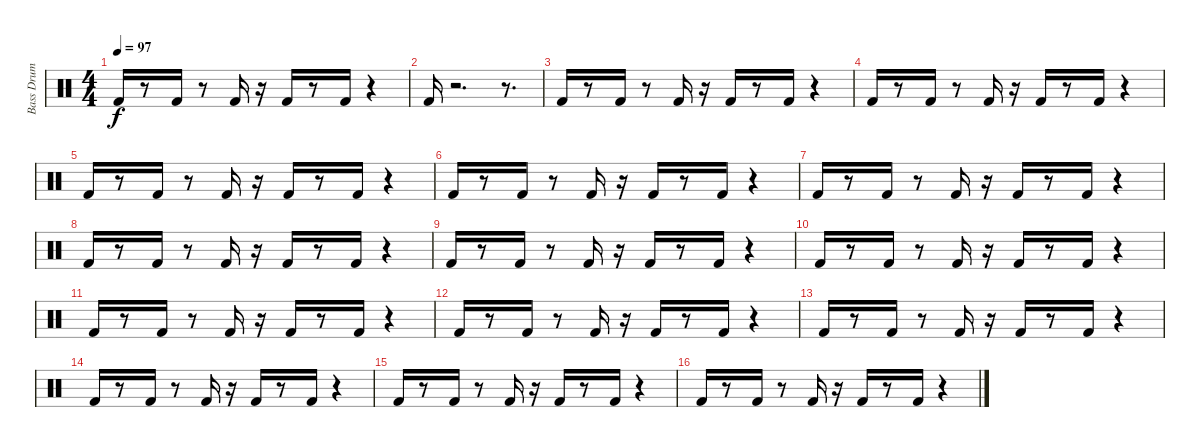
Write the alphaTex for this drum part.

\track ("Bass Drum" "Bass Drum") {instrument percussion}
\staff {score}
\articulation defaults
\ts (4 4)
\tempo 97
\clef neutral
\ks c "Kick (hit) 2".16{dy f}
r.8 "Kick (hit) 2".16 r.8 "Kick (hit) 2".16 r.16 "Kick (hit) 2".16 r.8 "Kick (hit) 2".16 r.4 |
"Kick (hit) 2".16 r.2{d} r.8{d} |
"Kick (hit) 2".16 r.8 "Kick (hit) 2".16 r.8 "Kick (hit) 2".16 r.16 "Kick (hit) 2".16 r.8 "Kick (hit) 2".16 r.4 |
"Kick (hit) 2".16 r.8 "Kick (hit) 2".16 r.8 "Kick (hit) 2".16 r.16 "Kick (hit) 2".16 r.8 "Kick (hit) 2".16 r.4 |
"Kick (hit) 2".16 r.8 "Kick (hit) 2".16 r.8 "Kick (hit) 2".16 r.16 "Kick (hit) 2".16 r.8 "Kick (hit) 2".16 r.4 |
"Kick (hit) 2".16 r.8 "Kick (hit) 2".16 r.8 "Kick (hit) 2".16 r.16 "Kick (hit) 2".16 r.8 "Kick (hit) 2".16 r.4 |
"Kick (hit) 2".16 r.8 "Kick (hit) 2".16 r.8 "Kick (hit) 2".16 r.16 "Kick (hit) 2".16 r.8 "Kick (hit) 2".16 r.4 |
"Kick (hit) 2".16 r.8 "Kick (hit) 2".16 r.8 "Kick (hit) 2".16 r.16 "Kick (hit) 2".16 r.8 "Kick (hit) 2".16 r.4 |
"Kick (hit) 2".16 r.8 "Kick (hit) 2".16 r.8 "Kick (hit) 2".16 r.16 "Kick (hit) 2".16 r.8 "Kick (hit) 2".16 r.4 |
"Kick (hit) 2".16 r.8 "Kick (hit) 2".16 r.8 "Kick (hit) 2".16 r.16 "Kick (hit) 2".16 r.8 "Kick (hit) 2".16 r.4 |
"Kick (hit) 2".16 r.8 "Kick (hit) 2".16 r.8 "Kick (hit) 2".16 r.16 "Kick (hit) 2".16 r.8 "Kick (hit) 2".16 r.4 |
"Kick (hit) 2".16 r.8 "Kick (hit) 2".16 r.8 "Kick (hit) 2".16 r.16 "Kick (hit) 2".16 r.8 "Kick (hit) 2".16 r.4 |
"Kick (hit) 2".16 r.8 "Kick (hit) 2".16 r.8 "Kick (hit) 2".16 r.16 "Kick (hit) 2".16 r.8 "Kick (hit) 2".16 r.4 |
"Kick (hit) 2".16 r.8 "Kick (hit) 2".16 r.8 "Kick (hit) 2".16 r.16 "Kick (hit) 2".16 r.8 "Kick (hit) 2".16 r.4 |
"Kick (hit) 2".16 r.8 "Kick (hit) 2".16 r.8 "Kick (hit) 2".16 r.16 "Kick (hit) 2".16 r.8 "Kick (hit) 2".16 r.4 |
"Kick (hit) 2".16 r.8 "Kick (hit) 2".16 r.8 "Kick (hit) 2".16 r.16 "Kick (hit) 2".16 r.8 "Kick (hit) 2".16 r.4
